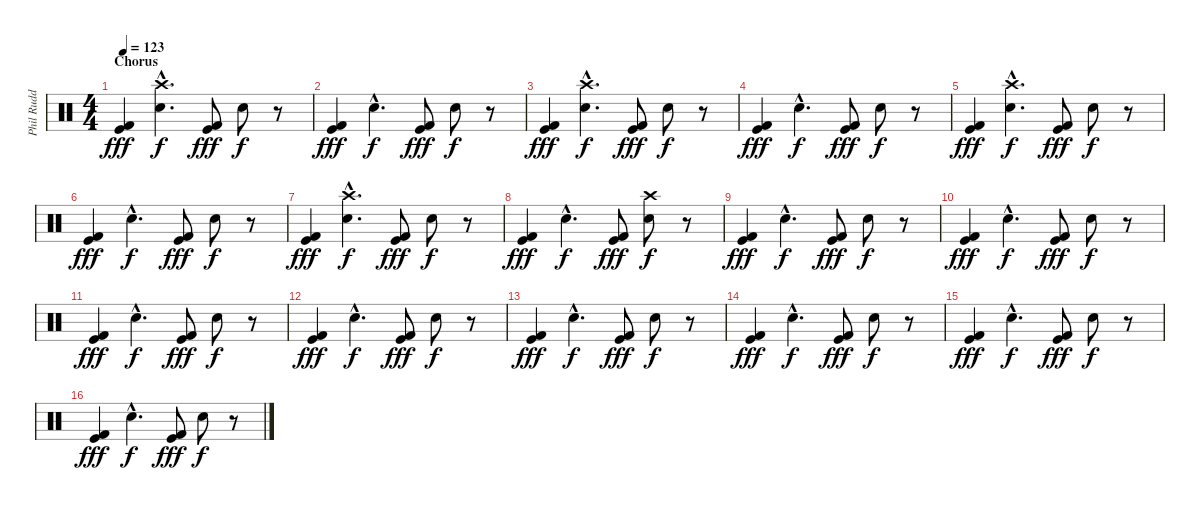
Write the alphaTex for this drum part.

\track ("Phil Rudd (Drums)" "Phil Rudd ") {instrument percussion}
\staff {score}
\articulation defaults
\ts (4 4)
\section ("" "Chorus")
\tempo 123
\clef neutral
\ks c
("Kick (hit) 2" "Kick (hit)").4{dy fff} ("Snare (hit) 2"{hac} "Crash high (hit)"{hac}).4{d dy f} ("Kick (hit) 2" "Kick (hit)").8{dy fff} "Snare (hit) 2".8{dy f} r.8 |
("Kick (hit) 2" "Kick (hit)").4{dy fff} "Snare (hit) 2"{hac}.4{d dy f} ("Kick (hit) 2" "Kick (hit)").8{dy fff} "Snare (hit) 2".8{dy f} r.8 |
("Kick (hit) 2" "Kick (hit)").4{dy fff} ("Snare (hit) 2"{hac} "Crash high (hit)"{hac}).4{d dy f} ("Kick (hit) 2" "Kick (hit)").8{dy fff} "Snare (hit) 2".8{dy f} r.8 |
("Kick (hit) 2" "Kick (hit)").4{dy fff} "Snare (hit) 2"{hac}.4{d dy f} ("Kick (hit) 2" "Kick (hit)").8{dy fff} "Snare (hit) 2".8{dy f} r.8 |
("Kick (hit) 2" "Kick (hit)").4{dy fff} ("Snare (hit) 2"{hac} "Crash high (hit)"{hac}).4{d dy f} ("Kick (hit) 2" "Kick (hit)").8{dy fff} "Snare (hit) 2".8{dy f} r.8 |
("Kick (hit) 2" "Kick (hit)").4{dy fff} "Snare (hit) 2"{hac}.4{d dy f} ("Kick (hit) 2" "Kick (hit)").8{dy fff} "Snare (hit) 2".8{dy f} r.8 |
("Kick (hit) 2" "Kick (hit)").4{dy fff} ("Snare (hit) 2"{hac} "Crash high (hit)"{hac}).4{d dy f} ("Kick (hit) 2" "Kick (hit)").8{dy fff} "Snare (hit) 2".8{dy f} r.8 |
("Kick (hit) 2" "Kick (hit)").4{dy fff} "Snare (hit) 2"{hac}.4{d dy f} ("Kick (hit) 2" "Kick (hit)").8{dy fff} ("Snare (hit) 2" "Crash high (hit)").8{dy f} r.8 |
("Kick (hit) 2" "Kick (hit)").4{dy fff} "Snare (hit) 2"{hac}.4{d dy f} ("Kick (hit) 2" "Kick (hit)").8{dy fff} "Snare (hit) 2".8{dy f} r.8 |
("Kick (hit) 2" "Kick (hit)").4{dy fff} "Snare (hit) 2"{hac}.4{d dy f} ("Kick (hit) 2" "Kick (hit)").8{dy fff} "Snare (hit) 2".8{dy f} r.8 |
("Kick (hit) 2" "Kick (hit)").4{dy fff} "Snare (hit) 2"{hac}.4{d dy f} ("Kick (hit) 2" "Kick (hit)").8{dy fff} "Snare (hit) 2".8{dy f} r.8 |
("Kick (hit) 2" "Kick (hit)").4{dy fff} "Snare (hit) 2"{hac}.4{d dy f} ("Kick (hit) 2" "Kick (hit)").8{dy fff} "Snare (hit) 2".8{dy f} r.8 |
("Kick (hit) 2" "Kick (hit)").4{dy fff} "Snare (hit) 2"{hac}.4{d dy f} ("Kick (hit) 2" "Kick (hit)").8{dy fff} "Snare (hit) 2".8{dy f} r.8 |
("Kick (hit) 2" "Kick (hit)").4{dy fff} "Snare (hit) 2"{hac}.4{d dy f} ("Kick (hit) 2" "Kick (hit)").8{dy fff} "Snare (hit) 2".8{dy f} r.8 |
("Kick (hit) 2" "Kick (hit)").4{dy fff} "Snare (hit) 2"{hac}.4{d dy f} ("Kick (hit) 2" "Kick (hit)").8{dy fff} "Snare (hit) 2".8{dy f} r.8 |
("Kick (hit) 2" "Kick (hit)").4{dy fff} "Snare (hit) 2"{hac}.4{d dy f} ("Kick (hit) 2" "Kick (hit)").8{dy fff} "Snare (hit) 2".8{dy f} r.8
